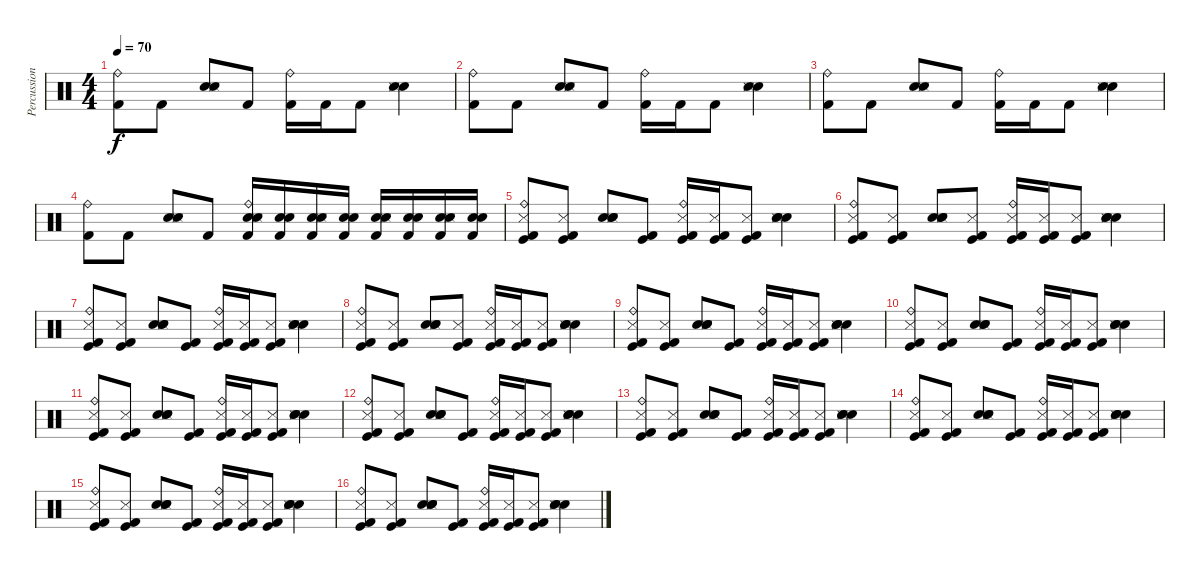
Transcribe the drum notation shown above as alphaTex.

\track ("Percussion2" "Percussion") {instrument percussion}
\staff {score}
\articulation defaults
\ts (4 4)
\tempo 70
\clef neutral
\ks c
("Kick (hit) 2" "Ride (bell)").8{dy f} "Kick (hit) 2".8 ("Hand Clap (hit)" "Electric Snare (hit)" "Snare (side stick) 3").8 "Kick (hit) 2".8 ("Kick (hit) 2" "Ride (bell)").16 "Kick (hit) 2".16 "Kick (hit) 2".8 ("Hand Clap (hit)" "Electric Snare (hit)" "Snare (side stick) 3").4 |
("Kick (hit) 2" "Ride (bell)").8 "Kick (hit) 2".8 ("Hand Clap (hit)" "Electric Snare (hit)" "Snare (side stick) 3").8 "Kick (hit) 2".8 ("Kick (hit) 2" "Ride (bell)").16 "Kick (hit) 2".16 "Kick (hit) 2".8 ("Hand Clap (hit)" "Electric Snare (hit)" "Snare (side stick) 3").4 |
("Kick (hit) 2" "Ride (bell)").8 "Kick (hit) 2".8 ("Hand Clap (hit)" "Electric Snare (hit)" "Snare (side stick) 3").8 "Kick (hit) 2".8 ("Kick (hit) 2" "Ride (bell)").16 "Kick (hit) 2".16 "Kick (hit) 2".8 ("Hand Clap (hit)" "Electric Snare (hit)" "Snare (side stick) 3").4 |
("Kick (hit) 2" "Ride (bell)").8 "Kick (hit) 2".8 ("Hand Clap (hit)" "Electric Snare (hit)" "Snare (side stick) 3").8 "Kick (hit) 2".8 ("Kick (hit) 2" "Hand Clap (hit)" "Electric Snare (hit)" "Snare (side stick) 3" "Ride (bell)").16 ("Kick (hit) 2" "Hand Clap (hit)" "Electric Snare (hit)").16 ("Kick (hit) 2" "Hand Clap (hit)" "Electric Snare (hit)" "Snare (side stick) 3").16 ("Kick (hit) 2" "Hand Clap (hit)" "Electric Snare (hit)").16 ("Kick (hit) 2" "Hand Clap (hit)" "Electric Snare (hit)" "Snare (side stick) 3").16 ("Kick (hit) 2" "Hand Clap (hit)" "Electric Snare (hit)").16 ("Kick (hit) 2" "Hand Clap (hit)" "Electric Snare (hit)" "Snare (side stick) 3").16 ("Kick (hit) 2" "Hand Clap (hit)" "Electric Snare (hit)").16 |
("Kick (hit) 2" "Kick (hit)" "Snare (side stick) 3" "Ride (bell)").8 ("Kick (hit) 2" "Kick (hit)" "Snare (side stick) 3").8 ("Hand Clap (hit)" "Snare (hit) 2" "Snare (side stick) 3" "Electric Snare (hit)").8 ("Kick (hit) 2" "Kick (hit)").8 ("Kick (hit) 2" "Kick (hit)" "Snare (side stick) 3" "Ride (bell)").16 ("Kick (hit) 2" "Kick (hit)" "Snare (side stick) 3").16 ("Kick (hit) 2" "Kick (hit)" "Snare (side stick) 3").8 ("Hand Clap (hit)" "Snare (hit) 2" "Snare (side stick) 3" "Electric Snare (hit)").4 |
("Kick (hit) 2" "Kick (hit)" "Snare (side stick) 3" "Ride (bell)").8 ("Kick (hit) 2" "Kick (hit)" "Snare (side stick) 3").8 ("Snare (hit) 2" "Hand Clap (hit)" "Snare (side stick) 3" "Electric Snare (hit)").8 ("Kick (hit) 2" "Kick (hit)" "Snare (side stick) 3").8 ("Kick (hit) 2" "Kick (hit)" "Snare (side stick) 3" "Ride (bell)").16 ("Kick (hit) 2" "Kick (hit)" "Snare (side stick) 3").16 ("Kick (hit) 2" "Kick (hit)" "Snare (side stick) 3").8 ("Hand Clap (hit)" "Snare (hit) 2" "Snare (side stick) 3" "Electric Snare (hit)").4 |
("Kick (hit) 2" "Kick (hit)" "Snare (side stick) 3" "Ride (bell)").8 ("Kick (hit) 2" "Kick (hit)" "Snare (side stick) 3").8 ("Hand Clap (hit)" "Snare (hit) 2" "Snare (side stick) 3" "Electric Snare (hit)").8 ("Kick (hit) 2" "Kick (hit)").8 ("Kick (hit) 2" "Kick (hit)" "Snare (side stick) 3" "Ride (bell)").16 ("Kick (hit) 2" "Kick (hit)" "Snare (side stick) 3").16 ("Kick (hit) 2" "Kick (hit)" "Snare (side stick) 3").8 ("Hand Clap (hit)" "Snare (hit) 2" "Snare (side stick) 3" "Electric Snare (hit)").4 |
("Kick (hit) 2" "Kick (hit)" "Snare (side stick) 3" "Ride (bell)").8 ("Kick (hit) 2" "Kick (hit)" "Snare (side stick) 3").8 ("Snare (hit) 2" "Hand Clap (hit)" "Snare (side stick) 3" "Electric Snare (hit)").8 ("Kick (hit) 2" "Kick (hit)" "Snare (side stick) 3").8 ("Kick (hit) 2" "Kick (hit)" "Snare (side stick) 3" "Ride (bell)").16 ("Kick (hit) 2" "Kick (hit)" "Snare (side stick) 3").16 ("Kick (hit) 2" "Kick (hit)" "Snare (side stick) 3").8 ("Hand Clap (hit)" "Snare (hit) 2" "Snare (side stick) 3" "Electric Snare (hit)").4 |
("Kick (hit) 2" "Kick (hit)" "Snare (side stick) 3" "Ride (bell)").8 ("Kick (hit) 2" "Kick (hit)" "Snare (side stick) 3").8 ("Hand Clap (hit)" "Snare (hit) 2" "Snare (side stick) 3" "Electric Snare (hit)").8 ("Kick (hit) 2" "Kick (hit)").8 ("Kick (hit) 2" "Kick (hit)" "Snare (side stick) 3" "Ride (bell)").16 ("Kick (hit) 2" "Kick (hit)" "Snare (side stick) 3").16 ("Kick (hit) 2" "Kick (hit)" "Snare (side stick) 3").8 ("Hand Clap (hit)" "Snare (hit) 2" "Snare (side stick) 3" "Electric Snare (hit)").4 |
("Kick (hit) 2" "Kick (hit)" "Snare (side stick) 3" "Ride (bell)").8 ("Kick (hit) 2" "Kick (hit)" "Snare (side stick) 3").8 ("Hand Clap (hit)" "Snare (hit) 2" "Snare (side stick) 3" "Electric Snare (hit)").8 ("Kick (hit) 2" "Kick (hit)").8 ("Kick (hit) 2" "Kick (hit)" "Snare (side stick) 3" "Ride (bell)").16 ("Kick (hit) 2" "Kick (hit)" "Snare (side stick) 3").16 ("Kick (hit) 2" "Kick (hit)" "Snare (side stick) 3").8 ("Hand Clap (hit)" "Snare (hit) 2" "Snare (side stick) 3" "Electric Snare (hit)").4 |
("Kick (hit) 2" "Kick (hit)" "Snare (side stick) 3" "Ride (bell)").8 ("Kick (hit) 2" "Kick (hit)" "Snare (side stick) 3").8 ("Hand Clap (hit)" "Snare (hit) 2" "Snare (side stick) 3" "Electric Snare (hit)").8 ("Kick (hit) 2" "Kick (hit)").8 ("Kick (hit) 2" "Kick (hit)" "Snare (side stick) 3" "Ride (bell)").16 ("Kick (hit) 2" "Kick (hit)" "Snare (side stick) 3").16 ("Kick (hit) 2" "Kick (hit)" "Snare (side stick) 3").8 ("Hand Clap (hit)" "Snare (hit) 2" "Snare (side stick) 3" "Electric Snare (hit)").4 |
("Kick (hit) 2" "Kick (hit)" "Snare (side stick) 3" "Ride (bell)").8 ("Kick (hit) 2" "Kick (hit)" "Snare (side stick) 3").8 ("Hand Clap (hit)" "Snare (hit) 2" "Snare (side stick) 3" "Electric Snare (hit)").8 ("Kick (hit) 2" "Kick (hit)").8 ("Kick (hit) 2" "Kick (hit)" "Snare (side stick) 3" "Ride (bell)").16 ("Kick (hit) 2" "Kick (hit)" "Snare (side stick) 3").16 ("Kick (hit) 2" "Kick (hit)" "Snare (side stick) 3").8 ("Hand Clap (hit)" "Snare (hit) 2" "Snare (side stick) 3" "Electric Snare (hit)").4 |
("Kick (hit) 2" "Kick (hit)" "Snare (side stick) 3" "Ride (bell)").8 ("Kick (hit) 2" "Kick (hit)" "Snare (side stick) 3").8 ("Hand Clap (hit)" "Snare (hit) 2" "Snare (side stick) 3" "Electric Snare (hit)").8 ("Kick (hit) 2" "Kick (hit)").8 ("Kick (hit) 2" "Kick (hit)" "Snare (side stick) 3" "Ride (bell)").16 ("Kick (hit) 2" "Kick (hit)" "Snare (side stick) 3").16 ("Kick (hit) 2" "Kick (hit)" "Snare (side stick) 3").8 ("Hand Clap (hit)" "Snare (hit) 2" "Snare (side stick) 3" "Electric Snare (hit)").4 |
("Kick (hit) 2" "Kick (hit)" "Snare (side stick) 3" "Ride (bell)").8 ("Kick (hit) 2" "Kick (hit)" "Snare (side stick) 3").8 ("Hand Clap (hit)" "Snare (hit) 2" "Snare (side stick) 3" "Electric Snare (hit)").8 ("Kick (hit) 2" "Kick (hit)").8 ("Kick (hit) 2" "Kick (hit)" "Snare (side stick) 3" "Ride (bell)").16 ("Kick (hit) 2" "Kick (hit)" "Snare (side stick) 3").16 ("Kick (hit) 2" "Kick (hit)" "Snare (side stick) 3").8 ("Hand Clap (hit)" "Snare (hit) 2" "Snare (side stick) 3" "Electric Snare (hit)").4 |
("Kick (hit) 2" "Kick (hit)" "Snare (side stick) 3" "Ride (bell)").8 ("Kick (hit) 2" "Kick (hit)" "Snare (side stick) 3").8 ("Hand Clap (hit)" "Snare (hit) 2" "Snare (side stick) 3" "Electric Snare (hit)").8 ("Kick (hit) 2" "Kick (hit)").8 ("Kick (hit) 2" "Kick (hit)" "Snare (side stick) 3" "Ride (bell)").16 ("Kick (hit) 2" "Kick (hit)" "Snare (side stick) 3").16 ("Kick (hit) 2" "Kick (hit)" "Snare (side stick) 3").8 ("Hand Clap (hit)" "Snare (hit) 2" "Snare (side stick) 3" "Electric Snare (hit)").4 |
("Kick (hit) 2" "Kick (hit)" "Snare (side stick) 3" "Ride (bell)").8 ("Kick (hit) 2" "Kick (hit)" "Snare (side stick) 3").8 ("Hand Clap (hit)" "Snare (hit) 2" "Snare (side stick) 3" "Electric Snare (hit)").8 ("Kick (hit) 2" "Kick (hit)").8 ("Kick (hit) 2" "Kick (hit)" "Snare (side stick) 3" "Ride (bell)").16 ("Kick (hit) 2" "Kick (hit)" "Snare (side stick) 3").16 ("Kick (hit) 2" "Kick (hit)" "Snare (side stick) 3").8 ("Hand Clap (hit)" "Snare (hit) 2" "Snare (side stick) 3" "Electric Snare (hit)").4
